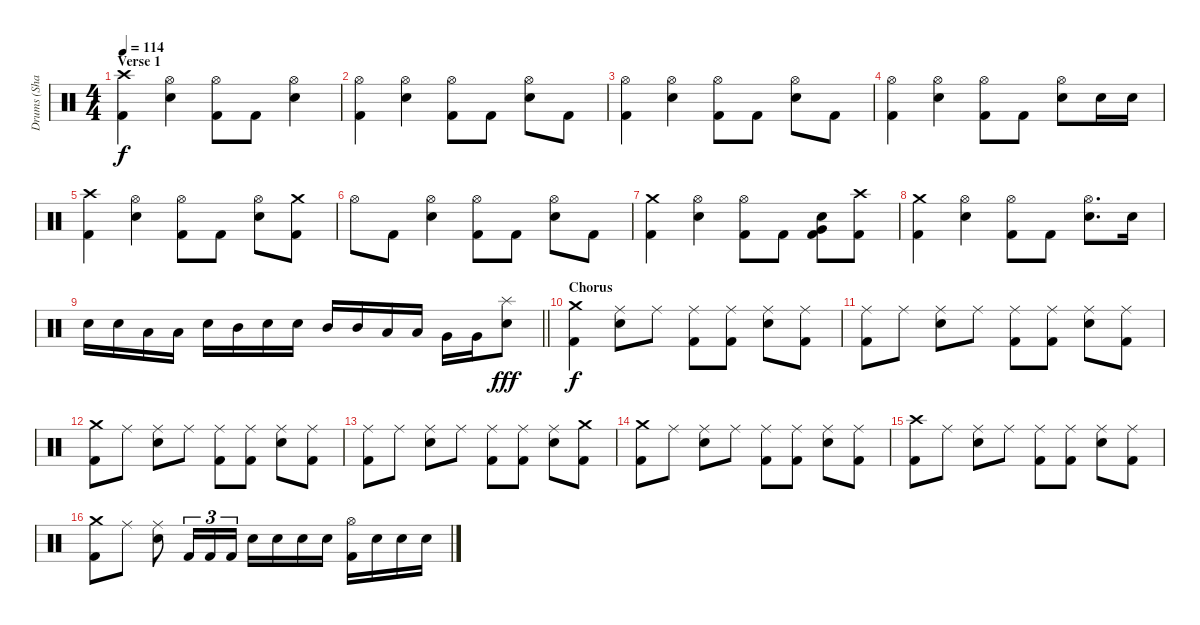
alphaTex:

\track ("Drums (Shawn)" "Drums (Sha") {instrument percussion}
\staff {score}
\articulation defaults
\ts (4 4)
\section ("" "Verse 1")
\tempo 114
\clef neutral
\ks c
("Crash high (hit)" "Kick (hit) 2").4{dy f} ("Hi-Hat (open)" "Snare (hit) 2").4 ("Hi-Hat (open)" "Kick (hit) 2").8 "Kick (hit) 2".8 ("Hi-Hat (open)" "Snare (hit) 2").4 |
("Hi-Hat (open)" "Kick (hit) 2").4 ("Hi-Hat (open)" "Snare (hit) 2").4 ("Hi-Hat (open)" "Kick (hit) 2").8 "Kick (hit) 2".8 ("Hi-Hat (open)" "Snare (hit) 2").8 "Kick (hit) 2".8 |
("Hi-Hat (open)" "Kick (hit) 2").4 ("Hi-Hat (open)" "Snare (hit) 2").4 ("Hi-Hat (open)" "Kick (hit) 2").8 "Kick (hit) 2".8 ("Hi-Hat (open)" "Snare (hit) 2").8 "Kick (hit) 2".8 |
("Hi-Hat (open)" "Kick (hit) 2").4 ("Hi-Hat (open)" "Snare (hit) 2").4 ("Hi-Hat (open)" "Kick (hit) 2").8 "Kick (hit) 2".8 ("Hi-Hat (open)" "Snare (hit) 2").8 "Snare (hit) 2".16 "Snare (hit) 2".16 |
("Crash high (hit)" "Kick (hit) 2").4 ("Hi-Hat (open)" "Snare (hit) 2").4 ("Hi-Hat (open)" "Kick (hit) 2").8 "Kick (hit) 2".8 ("Hi-Hat (open)" "Snare (hit) 2").8 ("Crash medium (hit)" "Kick (hit) 2").8 |
"Hi-Hat (open)".8 "Kick (hit) 2".8 ("Hi-Hat (open)" "Snare (hit) 2").4 ("Hi-Hat (open)" "Kick (hit) 2").8 "Kick (hit) 2".8 ("Hi-Hat (open)" "Snare (hit) 2").8 "Kick (hit) 2".8 |
("Crash medium (hit)" "Kick (hit) 2").4 ("Hi-Hat (open)" "Snare (hit) 2").4 ("Hi-Hat (open)" "Kick (hit) 2").8 "Kick (hit) 2".8 ("Very Low Tom (hit)" "Snare (hit) 2" "Kick (hit) 2").8 ("Crash high (hit)" "Kick (hit) 2").8 |
("Crash medium (hit)" "Kick (hit) 2").4 ("Hi-Hat (open)" "Snare (hit) 2").4 ("Hi-Hat (open)" "Kick (hit) 2").8 "Kick (hit) 2".8 ("Hi-Hat (open)" "Snare (hit) 2").8{d} "Snare (hit) 2".16 |
\barLineRight lightlight "Snare (hit) 2".16 "Snare (hit) 2".16 "Low Tom (hit)".16 "Low Tom (hit)".16 "Snare (hit) 2".16 "Mid Tom (hit)".16 "Snare (hit) 2".16 "Snare (hit) 2".16 "Mid Tom (hit)".16 "Mid Tom (hit)".16 "Low Tom (hit)".16 "Low Tom (hit)".16 "Very Low Tom (hit)".16 "Very Low Tom (hit)".16
("Splash (hit)" "Snare (hit) 2").8{dy fff} |
\section ("" "Chorus")
("Crash medium (hit)" "Kick (hit) 2").4{dy f} ("Ride (middle)" "Snare (hit) 2").8 "Ride (middle)".8 ("Ride (middle)" "Kick (hit) 2").8 ("Ride (middle)" "Kick (hit) 2").8 ("Ride (middle)" "Snare (hit) 2").8 ("Ride (middle)" "Kick (hit) 2").8 |
("Ride (middle)" "Kick (hit) 2").8 "Ride (middle)".8 ("Ride (middle)" "Snare (hit) 2").8 "Ride (middle)".8 ("Ride (middle)" "Kick (hit) 2").8 ("Ride (middle)" "Kick (hit) 2").8 ("Ride (middle)" "Snare (hit) 2").8 ("Ride (middle)" "Kick (hit) 2").8 |
("Crash medium (hit)" "Kick (hit) 2").8 "Ride (middle)".8 ("Ride (middle)" "Snare (hit) 2").8 "Ride (middle)".8 ("Ride (middle)" "Kick (hit) 2").8 ("Ride (middle)" "Kick (hit) 2").8 ("Ride (middle)" "Snare (hit) 2").8 ("Ride (middle)" "Kick (hit) 2").8 |
("Ride (middle)" "Kick (hit) 2").8 "Ride (middle)".8 ("Ride (middle)" "Snare (hit) 2").8 "Ride (middle)".8 ("Ride (middle)" "Kick (hit) 2").8 ("Ride (middle)" "Kick (hit) 2").8 ("Ride (middle)" "Snare (hit) 2").8 ("Crash medium (hit)" "Kick (hit) 2").8 |
("Crash medium (hit)" "Kick (hit) 2").8 "Ride (middle)".8 ("Ride (middle)" "Snare (hit) 2").8 "Ride (middle)".8 ("Ride (middle)" "Kick (hit) 2").8 ("Ride (middle)" "Kick (hit) 2").8 ("Ride (middle)" "Snare (hit) 2").8 ("Ride (middle)" "Kick (hit) 2").8 |
("Crash high (hit)" "Kick (hit) 2").8 "Ride (middle)".8 ("Ride (middle)" "Snare (hit) 2").8 "Ride (middle)".8 ("Ride (middle)" "Kick (hit) 2").8 ("Ride (middle)" "Kick (hit) 2").8 ("Ride (middle)" "Snare (hit) 2").8 ("Ride (middle)" "Kick (hit) 2").8 |
("Crash medium (hit)" "Kick (hit) 2").8 "Ride (middle)".8 ("Ride (middle)" "Snare (hit) 2").8 "Kick (hit) 2".16{tu (3 2)} "Kick (hit) 2".16{tu (3 2)} "Kick (hit) 2".16{tu (3 2)} "Snare (hit) 2".16 "Snare (hit) 2".16 "Snare (hit) 2".16 "Snare (hit) 2".16 ("Hi-Hat (open)" "Kick (hit) 2").16 "Snare (hit) 2".16 "Snare (hit) 2".16 "Snare (hit) 2".16
